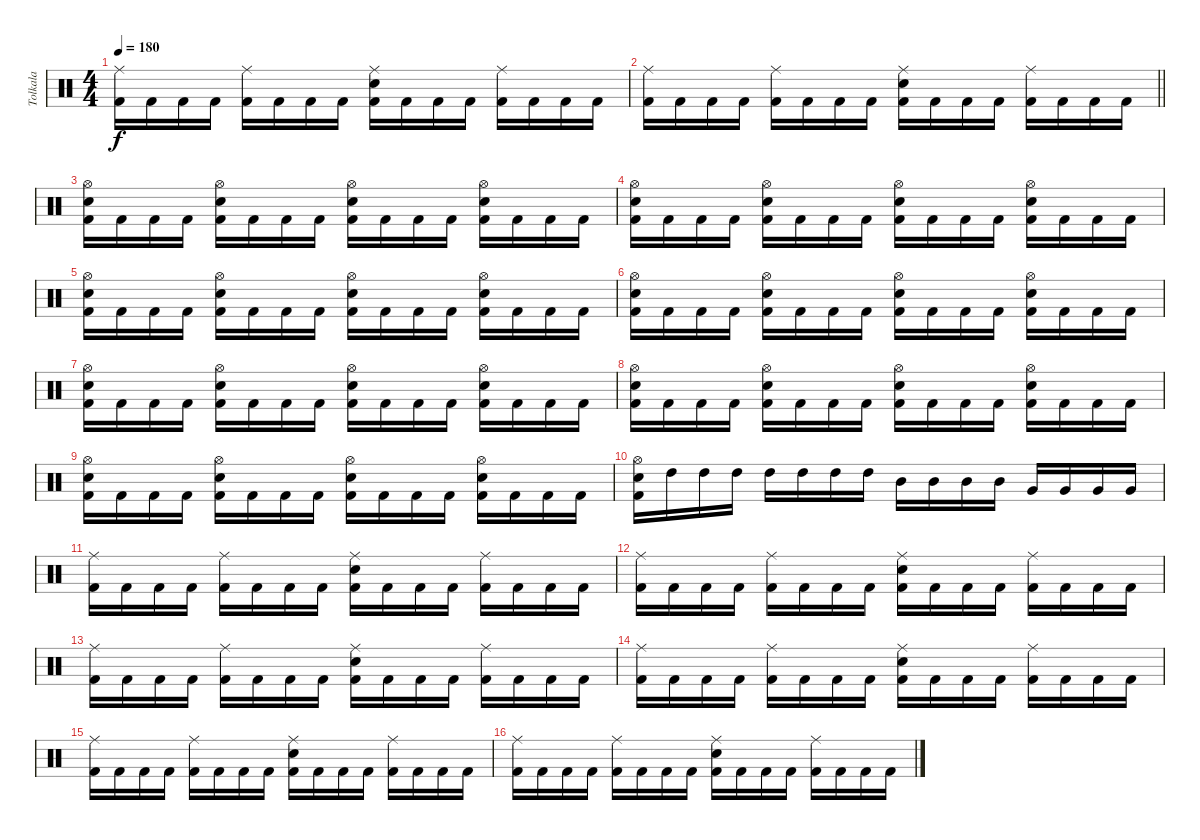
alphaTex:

\track ("Tolkala" "Tolkala") {instrument percussion}
\staff {score}
\articulation defaults
\ts (4 4)
\tempo 180
\clef neutral
\ks c
("Ride (middle)" "Kick (hit) 2").16{dy f} "Kick (hit) 2".16 "Kick (hit) 2".16 "Kick (hit) 2".16 ("Ride (middle)" "Kick (hit) 2").16 "Kick (hit) 2".16 "Kick (hit) 2".16 "Kick (hit) 2".16 ("Ride (middle)" "Electric Snare (hit)" "Kick (hit) 2").16 "Kick (hit) 2".16 "Kick (hit) 2".16 "Kick (hit) 2".16 ("Ride (middle)" "Kick (hit) 2").16 "Kick (hit) 2".16 "Kick (hit) 2".16 "Kick (hit) 2".16 |
\barLineRight lightlight
("Ride (middle)" "Kick (hit) 2").16 "Kick (hit) 2".16 "Kick (hit) 2".16 "Kick (hit) 2".16 ("Ride (middle)" "Kick (hit) 2").16 "Kick (hit) 2".16 "Kick (hit) 2".16 "Kick (hit) 2".16 ("Ride (middle)" "Electric Snare (hit)" "Kick (hit) 2").16 "Kick (hit) 2".16 "Kick (hit) 2".16 "Kick (hit) 2".16 ("Ride (middle)" "Kick (hit) 2").16 "Kick (hit) 2".16 "Kick (hit) 2".16 "Kick (hit) 2".16 |
\section ("" "")
("Hi-Hat (open)" "Electric Snare (hit)" "Kick (hit) 2").16 "Kick (hit) 2".16 "Kick (hit) 2".16 "Kick (hit) 2".16 ("Hi-Hat (open)" "Electric Snare (hit)" "Kick (hit) 2").16 "Kick (hit) 2".16 "Kick (hit) 2".16 "Kick (hit) 2".16 ("Hi-Hat (open)" "Electric Snare (hit)" "Kick (hit) 2").16 "Kick (hit) 2".16 "Kick (hit) 2".16 "Kick (hit) 2".16 ("Hi-Hat (open)" "Electric Snare (hit)" "Kick (hit) 2").16 "Kick (hit) 2".16 "Kick (hit) 2".16 "Kick (hit) 2".16 |
("Hi-Hat (open)" "Electric Snare (hit)" "Kick (hit) 2").16 "Kick (hit) 2".16 "Kick (hit) 2".16 "Kick (hit) 2".16 ("Hi-Hat (open)" "Electric Snare (hit)" "Kick (hit) 2").16 "Kick (hit) 2".16 "Kick (hit) 2".16 "Kick (hit) 2".16 ("Hi-Hat (open)" "Electric Snare (hit)" "Kick (hit) 2").16 "Kick (hit) 2".16 "Kick (hit) 2".16 "Kick (hit) 2".16 ("Hi-Hat (open)" "Electric Snare (hit)" "Kick (hit) 2").16 "Kick (hit) 2".16 "Kick (hit) 2".16 "Kick (hit) 2".16 |
("Hi-Hat (open)" "Electric Snare (hit)" "Kick (hit) 2").16 "Kick (hit) 2".16 "Kick (hit) 2".16 "Kick (hit) 2".16 ("Hi-Hat (open)" "Electric Snare (hit)" "Kick (hit) 2").16 "Kick (hit) 2".16 "Kick (hit) 2".16 "Kick (hit) 2".16 ("Hi-Hat (open)" "Electric Snare (hit)" "Kick (hit) 2").16 "Kick (hit) 2".16 "Kick (hit) 2".16 "Kick (hit) 2".16 ("Hi-Hat (open)" "Electric Snare (hit)" "Kick (hit) 2").16 "Kick (hit) 2".16 "Kick (hit) 2".16 "Kick (hit) 2".16 |
("Hi-Hat (open)" "Electric Snare (hit)" "Kick (hit) 2").16 "Kick (hit) 2".16 "Kick (hit) 2".16 "Kick (hit) 2".16 ("Hi-Hat (open)" "Electric Snare (hit)" "Kick (hit) 2").16 "Kick (hit) 2".16 "Kick (hit) 2".16 "Kick (hit) 2".16 ("Hi-Hat (open)" "Electric Snare (hit)" "Kick (hit) 2").16 "Kick (hit) 2".16 "Kick (hit) 2".16 "Kick (hit) 2".16 ("Hi-Hat (open)" "Electric Snare (hit)" "Kick (hit) 2").16 "Kick (hit) 2".16 "Kick (hit) 2".16 "Kick (hit) 2".16 |
("Hi-Hat (open)" "Electric Snare (hit)" "Kick (hit) 2").16 "Kick (hit) 2".16 "Kick (hit) 2".16 "Kick (hit) 2".16 ("Hi-Hat (open)" "Electric Snare (hit)" "Kick (hit) 2").16 "Kick (hit) 2".16 "Kick (hit) 2".16 "Kick (hit) 2".16 ("Hi-Hat (open)" "Electric Snare (hit)" "Kick (hit) 2").16 "Kick (hit) 2".16 "Kick (hit) 2".16 "Kick (hit) 2".16 ("Hi-Hat (open)" "Electric Snare (hit)" "Kick (hit) 2").16 "Kick (hit) 2".16 "Kick (hit) 2".16 "Kick (hit) 2".16 |
("Hi-Hat (open)" "Electric Snare (hit)" "Kick (hit) 2").16 "Kick (hit) 2".16 "Kick (hit) 2".16 "Kick (hit) 2".16 ("Hi-Hat (open)" "Electric Snare (hit)" "Kick (hit) 2").16 "Kick (hit) 2".16 "Kick (hit) 2".16 "Kick (hit) 2".16 ("Hi-Hat (open)" "Electric Snare (hit)" "Kick (hit) 2").16 "Kick (hit) 2".16 "Kick (hit) 2".16 "Kick (hit) 2".16 ("Hi-Hat (open)" "Electric Snare (hit)" "Kick (hit) 2").16 "Kick (hit) 2".16 "Kick (hit) 2".16 "Kick (hit) 2".16 |
("Hi-Hat (open)" "Electric Snare (hit)" "Kick (hit) 2").16 "Kick (hit) 2".16 "Kick (hit) 2".16 "Kick (hit) 2".16 ("Hi-Hat (open)" "Electric Snare (hit)" "Kick (hit) 2").16 "Kick (hit) 2".16 "Kick (hit) 2".16 "Kick (hit) 2".16 ("Hi-Hat (open)" "Electric Snare (hit)" "Kick (hit) 2").16 "Kick (hit) 2".16 "Kick (hit) 2".16 "Kick (hit) 2".16 ("Hi-Hat (open)" "Electric Snare (hit)" "Kick (hit) 2").16 "Kick (hit) 2".16 "Kick (hit) 2".16 "Kick (hit) 2".16 |
("Hi-Hat (open)" "Electric Snare (hit)" "Kick (hit) 2").16 "High Tom (hit)".16 "High Tom (hit)".16 "High Tom (hit)".16 "High Tom (hit)".16 "High Tom (hit)".16 "High Tom (hit)".16 "High Tom (hit)".16 "Mid Tom (hit)".16 "Mid Tom (hit)".16 "Mid Tom (hit)".16 "Mid Tom (hit)".16 "Very Low Tom (hit)".16 "Very Low Tom (hit)".16 "Very Low Tom (hit)".16 "Very Low Tom (hit)".16 |
("Ride (middle)" "Kick (hit) 2").16 "Kick (hit) 2".16 "Kick (hit) 2".16 "Kick (hit) 2".16 ("Ride (middle)" "Kick (hit) 2").16 "Kick (hit) 2".16 "Kick (hit) 2".16 "Kick (hit) 2".16 ("Ride (middle)" "Electric Snare (hit)" "Kick (hit) 2").16 "Kick (hit) 2".16 "Kick (hit) 2".16 "Kick (hit) 2".16 ("Ride (middle)" "Kick (hit) 2").16 "Kick (hit) 2".16 "Kick (hit) 2".16 "Kick (hit) 2".16 |
("Ride (middle)" "Kick (hit) 2").16 "Kick (hit) 2".16 "Kick (hit) 2".16 "Kick (hit) 2".16 ("Ride (middle)" "Kick (hit) 2").16 "Kick (hit) 2".16 "Kick (hit) 2".16 "Kick (hit) 2".16 ("Ride (middle)" "Electric Snare (hit)" "Kick (hit) 2").16 "Kick (hit) 2".16 "Kick (hit) 2".16 "Kick (hit) 2".16 ("Ride (middle)" "Kick (hit) 2").16 "Kick (hit) 2".16 "Kick (hit) 2".16 "Kick (hit) 2".16 |
("Ride (middle)" "Kick (hit) 2").16 "Kick (hit) 2".16 "Kick (hit) 2".16 "Kick (hit) 2".16 ("Ride (middle)" "Kick (hit) 2").16 "Kick (hit) 2".16 "Kick (hit) 2".16 "Kick (hit) 2".16 ("Ride (middle)" "Electric Snare (hit)" "Kick (hit) 2").16 "Kick (hit) 2".16 "Kick (hit) 2".16 "Kick (hit) 2".16 ("Ride (middle)" "Kick (hit) 2").16 "Kick (hit) 2".16 "Kick (hit) 2".16 "Kick (hit) 2".16 |
("Ride (middle)" "Kick (hit) 2").16 "Kick (hit) 2".16 "Kick (hit) 2".16 "Kick (hit) 2".16 ("Ride (middle)" "Kick (hit) 2").16 "Kick (hit) 2".16 "Kick (hit) 2".16 "Kick (hit) 2".16 ("Ride (middle)" "Electric Snare (hit)" "Kick (hit) 2").16 "Kick (hit) 2".16 "Kick (hit) 2".16 "Kick (hit) 2".16 ("Ride (middle)" "Kick (hit) 2").16 "Kick (hit) 2".16 "Kick (hit) 2".16 "Kick (hit) 2".16 |
("Ride (middle)" "Kick (hit) 2").16 "Kick (hit) 2".16 "Kick (hit) 2".16 "Kick (hit) 2".16 ("Ride (middle)" "Kick (hit) 2").16 "Kick (hit) 2".16 "Kick (hit) 2".16 "Kick (hit) 2".16 ("Ride (middle)" "Electric Snare (hit)" "Kick (hit) 2").16 "Kick (hit) 2".16 "Kick (hit) 2".16 "Kick (hit) 2".16 ("Ride (middle)" "Kick (hit) 2").16 "Kick (hit) 2".16 "Kick (hit) 2".16 "Kick (hit) 2".16 |
("Ride (middle)" "Kick (hit) 2").16 "Kick (hit) 2".16 "Kick (hit) 2".16 "Kick (hit) 2".16 ("Ride (middle)" "Kick (hit) 2").16 "Kick (hit) 2".16 "Kick (hit) 2".16 "Kick (hit) 2".16 ("Ride (middle)" "Electric Snare (hit)" "Kick (hit) 2").16 "Kick (hit) 2".16 "Kick (hit) 2".16 "Kick (hit) 2".16 ("Ride (middle)" "Kick (hit) 2").16 "Kick (hit) 2".16 "Kick (hit) 2".16 "Kick (hit) 2".16
